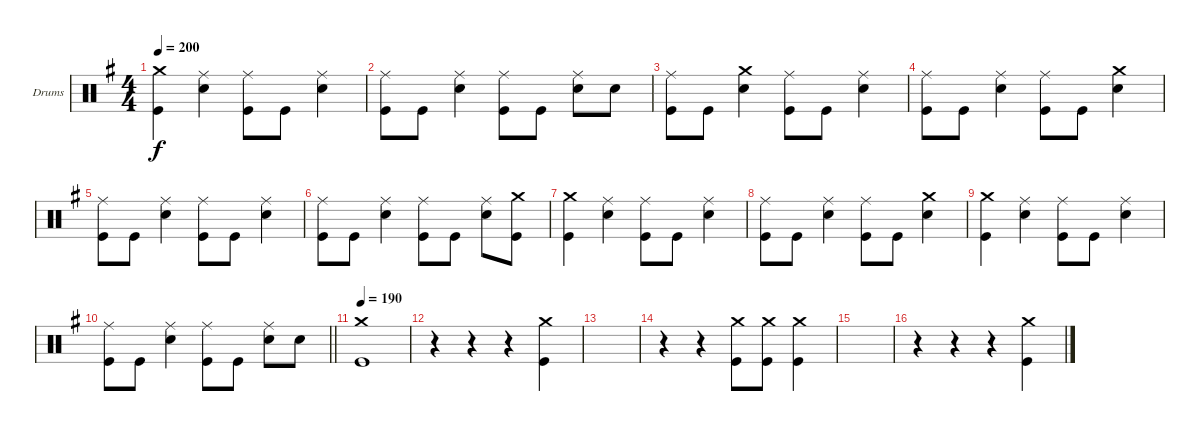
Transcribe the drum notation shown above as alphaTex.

\bracketExtendMode groupsimilarinstruments
\firstSystemTrackNameOrientation horizontal
\otherSystemsTrackNameOrientation horizontal
\track ("Drums" "Drums") {instrument percussion}
\staff {score}
\articulation defaults
\ts (4 4)
\tempo 200
\clef neutral
\ks g
("Crash medium (hit)" "Kick (hit)").4{dy f} ("Ride (middle)" "Snare (hit) 2").4 ("Ride (middle)" "Kick (hit)").8 "Kick (hit)".8 ("Ride (middle)" "Snare (hit) 2").4 |
("Ride (middle)" "Kick (hit)").8 "Kick (hit)".8 ("Ride (middle)" "Snare (hit) 2").4 ("Ride (middle)" "Kick (hit)").8 "Kick (hit)".8 ("Ride (middle)" "Snare (hit) 2").8 "Snare (hit) 2".8 |
("Ride (middle)" "Kick (hit)").8 "Kick (hit)".8 ("Snare (hit) 2" "Crash medium (hit)").4 ("Ride (middle)" "Kick (hit)").8 "Kick (hit)".8 ("Ride (middle)" "Snare (hit) 2").4 |
("Ride (middle)" "Kick (hit)").8 "Kick (hit)".8 ("Ride (middle)" "Snare (hit) 2").4 ("Ride (middle)" "Kick (hit)").8 "Kick (hit)".8 ("Crash medium (hit)" "Snare (hit) 2").4 |
("Ride (middle)" "Kick (hit)").8 "Kick (hit)".8 ("Ride (middle)" "Snare (hit) 2").4 ("Ride (middle)" "Kick (hit)").8 "Kick (hit)".8 ("Ride (middle)" "Snare (hit) 2").4 |
("Ride (middle)" "Kick (hit)").8 "Kick (hit)".8 ("Ride (middle)" "Snare (hit) 2").4 ("Ride (middle)" "Kick (hit)").8 "Kick (hit)".8 ("Snare (hit) 2" "Ride (middle)").8 ("Kick (hit)" "Crash medium (hit)").8 |
("Crash medium (hit)" "Kick (hit)").4 ("Ride (middle)" "Snare (hit) 2").4 ("Ride (middle)" "Kick (hit)").8 "Kick (hit)".8 ("Ride (middle)" "Snare (hit) 2").4 |
("Ride (middle)" "Kick (hit)").8 "Kick (hit)".8 ("Ride (middle)" "Snare (hit) 2").4 ("Ride (middle)" "Kick (hit)").8 "Kick (hit)".8 ("Crash medium (hit)" "Snare (hit) 2").4 |
("Crash medium (hit)" "Kick (hit)").4 ("Ride (middle)" "Snare (hit) 2").4 ("Ride (middle)" "Kick (hit)").8 "Kick (hit)".8 ("Ride (middle)" "Snare (hit) 2").4 |
\barLineRight lightlight
("Ride (middle)" "Kick (hit)").8 "Kick (hit)".8 ("Ride (middle)" "Snare (hit) 2").4 ("Ride (middle)" "Kick (hit)").8 "Kick (hit)".8 ("Ride (middle)" "Snare (hit) 2").8 "Snare (hit) 2".8 |
\tempo 190
("Crash medium (hit)" "Kick (hit)").1 |
r.4 r.4 r.4 ("Crash medium (hit)" "Kick (hit)").4 |
|
r.4 r.4 ("Crash medium (hit)" "Kick (hit)").8 ("Crash medium (hit)" "Kick (hit)").8 ("Crash medium (hit)" "Kick (hit)").4 |
|
r.4 r.4 r.4 ("Crash medium (hit)" "Kick (hit)").4
